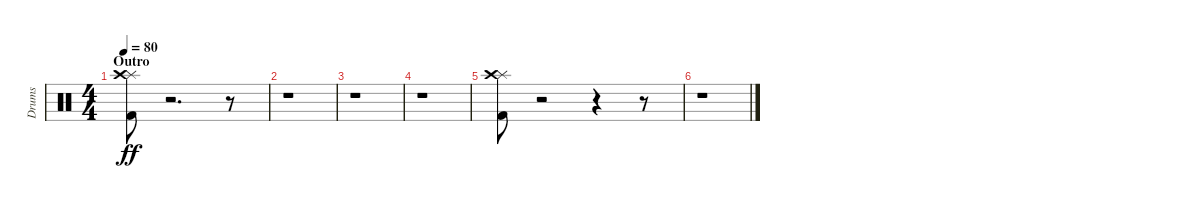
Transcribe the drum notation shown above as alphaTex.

\track ("Drums" "Drums") {instrument percussion}
\staff {score}
\articulation defaults
\ts (4 4)
\section ("" "Outro")
\tempo 80
\clef neutral
\ks c
("Kick (hit) 2" "Splash (hit)" "Crash high (hit)").8{dy ff} r.2{d} r.8 |
r.1 |
r.1 |
r.1 |
("Kick (hit) 2" "Splash (hit)" "Crash high (hit)").8 r.2 r.4 r.8 |
r.1
